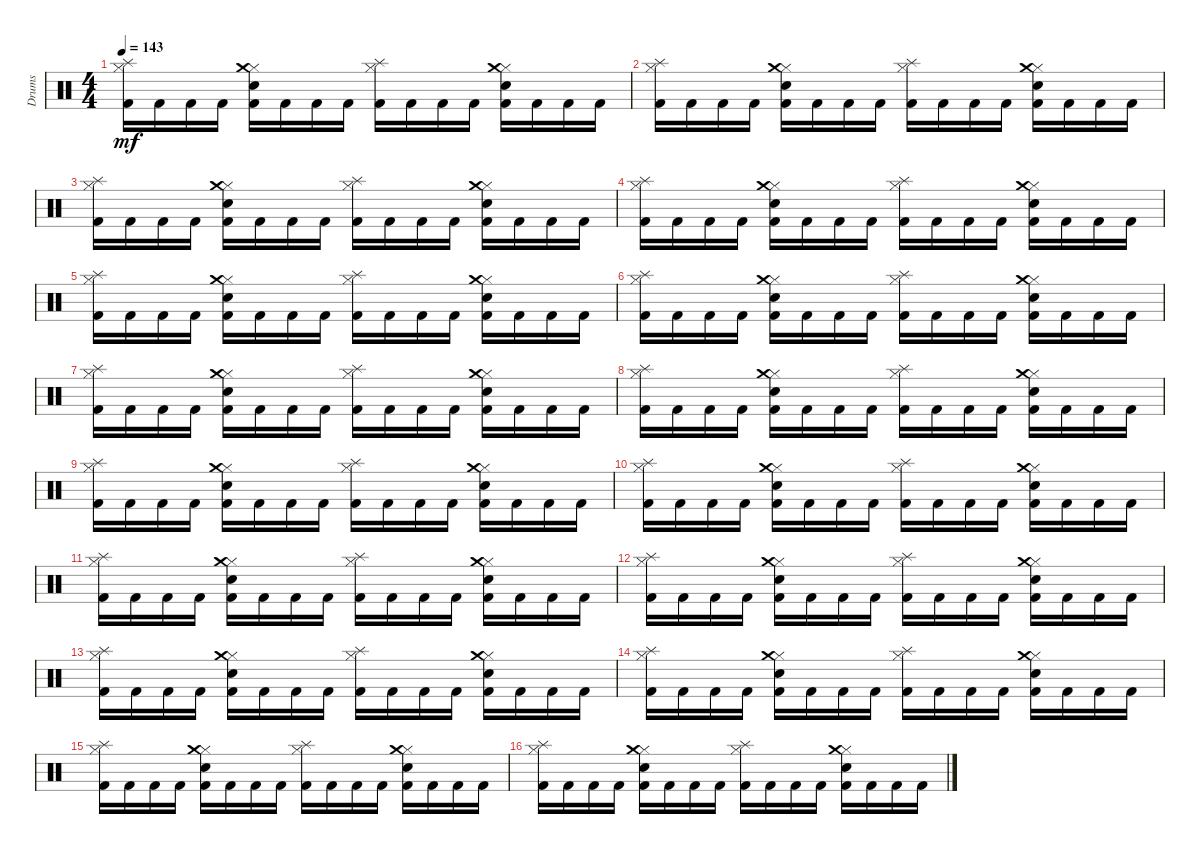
\track ("Drums" "Drums") {instrument percussion}
\staff {score}
\articulation defaults
\ts (4 4)
\tempo 143
\clef neutral
\ks c
("Kick (hit) 2" "Hi-Hat (closed)" "Splash (hit)").16{dy mf} "Kick (hit) 2".16 "Kick (hit) 2".16 "Kick (hit) 2".16 ("Kick (hit) 2" "Snare (hit) 2" "Hi-Hat (closed)" "Crash medium (hit)").16 "Kick (hit) 2".16 "Kick (hit) 2".16 "Kick (hit) 2".16 ("Kick (hit) 2" "Hi-Hat (closed)" "Splash (hit)").16 "Kick (hit) 2".16 "Kick (hit) 2".16 "Kick (hit) 2".16 ("Kick (hit) 2" "Snare (hit) 2" "Hi-Hat (closed)" "Crash medium (hit)").16 "Kick (hit) 2".16 "Kick (hit) 2".16 "Kick (hit) 2".16 |
("Kick (hit) 2" "Hi-Hat (closed)" "Splash (hit)").16 "Kick (hit) 2".16 "Kick (hit) 2".16 "Kick (hit) 2".16 ("Kick (hit) 2" "Snare (hit) 2" "Hi-Hat (closed)" "Crash medium (hit)").16 "Kick (hit) 2".16 "Kick (hit) 2".16 "Kick (hit) 2".16 ("Kick (hit) 2" "Hi-Hat (closed)" "Splash (hit)").16 "Kick (hit) 2".16 "Kick (hit) 2".16 "Kick (hit) 2".16 ("Kick (hit) 2" "Snare (hit) 2" "Hi-Hat (closed)" "Crash medium (hit)").16 "Kick (hit) 2".16 "Kick (hit) 2".16 "Kick (hit) 2".16 |
("Kick (hit) 2" "Hi-Hat (closed)" "Splash (hit)").16 "Kick (hit) 2".16 "Kick (hit) 2".16 "Kick (hit) 2".16 ("Kick (hit) 2" "Snare (hit) 2" "Hi-Hat (closed)" "Crash medium (hit)").16 "Kick (hit) 2".16 "Kick (hit) 2".16 "Kick (hit) 2".16 ("Kick (hit) 2" "Hi-Hat (closed)" "Splash (hit)").16 "Kick (hit) 2".16 "Kick (hit) 2".16 "Kick (hit) 2".16 ("Kick (hit) 2" "Snare (hit) 2" "Hi-Hat (closed)" "Crash medium (hit)").16 "Kick (hit) 2".16 "Kick (hit) 2".16 "Kick (hit) 2".16 |
("Kick (hit) 2" "Hi-Hat (closed)" "Splash (hit)").16 "Kick (hit) 2".16 "Kick (hit) 2".16 "Kick (hit) 2".16 ("Kick (hit) 2" "Snare (hit) 2" "Hi-Hat (closed)" "Crash medium (hit)").16 "Kick (hit) 2".16 "Kick (hit) 2".16 "Kick (hit) 2".16 ("Kick (hit) 2" "Hi-Hat (closed)" "Splash (hit)").16 "Kick (hit) 2".16 "Kick (hit) 2".16 "Kick (hit) 2".16 ("Kick (hit) 2" "Snare (hit) 2" "Hi-Hat (closed)" "Crash medium (hit)").16 "Kick (hit) 2".16 "Kick (hit) 2".16 "Kick (hit) 2".16 |
("Kick (hit) 2" "Hi-Hat (closed)" "Splash (hit)").16 "Kick (hit) 2".16 "Kick (hit) 2".16 "Kick (hit) 2".16 ("Kick (hit) 2" "Snare (hit) 2" "Hi-Hat (closed)" "Crash medium (hit)").16 "Kick (hit) 2".16 "Kick (hit) 2".16 "Kick (hit) 2".16 ("Kick (hit) 2" "Hi-Hat (closed)" "Splash (hit)").16 "Kick (hit) 2".16 "Kick (hit) 2".16 "Kick (hit) 2".16 ("Kick (hit) 2" "Snare (hit) 2" "Hi-Hat (closed)" "Crash medium (hit)").16 "Kick (hit) 2".16 "Kick (hit) 2".16 "Kick (hit) 2".16 |
("Kick (hit) 2" "Hi-Hat (closed)" "Splash (hit)").16 "Kick (hit) 2".16 "Kick (hit) 2".16 "Kick (hit) 2".16 ("Kick (hit) 2" "Snare (hit) 2" "Hi-Hat (closed)" "Crash medium (hit)").16 "Kick (hit) 2".16 "Kick (hit) 2".16 "Kick (hit) 2".16 ("Kick (hit) 2" "Hi-Hat (closed)" "Splash (hit)").16 "Kick (hit) 2".16 "Kick (hit) 2".16 "Kick (hit) 2".16 ("Kick (hit) 2" "Snare (hit) 2" "Hi-Hat (closed)" "Crash medium (hit)").16 "Kick (hit) 2".16 "Kick (hit) 2".16 "Kick (hit) 2".16 |
("Kick (hit) 2" "Hi-Hat (closed)" "Splash (hit)").16 "Kick (hit) 2".16 "Kick (hit) 2".16 "Kick (hit) 2".16 ("Kick (hit) 2" "Snare (hit) 2" "Hi-Hat (closed)" "Crash medium (hit)").16 "Kick (hit) 2".16 "Kick (hit) 2".16 "Kick (hit) 2".16 ("Kick (hit) 2" "Hi-Hat (closed)" "Splash (hit)").16 "Kick (hit) 2".16 "Kick (hit) 2".16 "Kick (hit) 2".16 ("Kick (hit) 2" "Snare (hit) 2" "Hi-Hat (closed)" "Crash medium (hit)").16 "Kick (hit) 2".16 "Kick (hit) 2".16 "Kick (hit) 2".16 |
("Kick (hit) 2" "Hi-Hat (closed)" "Splash (hit)").16 "Kick (hit) 2".16 "Kick (hit) 2".16 "Kick (hit) 2".16 ("Kick (hit) 2" "Snare (hit) 2" "Hi-Hat (closed)" "Crash medium (hit)").16 "Kick (hit) 2".16 "Kick (hit) 2".16 "Kick (hit) 2".16 ("Kick (hit) 2" "Hi-Hat (closed)" "Splash (hit)").16 "Kick (hit) 2".16 "Kick (hit) 2".16 "Kick (hit) 2".16 ("Kick (hit) 2" "Snare (hit) 2" "Hi-Hat (closed)" "Crash medium (hit)").16 "Kick (hit) 2".16 "Kick (hit) 2".16 "Kick (hit) 2".16 |
("Kick (hit) 2" "Hi-Hat (closed)" "Splash (hit)").16 "Kick (hit) 2".16 "Kick (hit) 2".16 "Kick (hit) 2".16 ("Kick (hit) 2" "Snare (hit) 2" "Hi-Hat (closed)" "Crash medium (hit)").16 "Kick (hit) 2".16 "Kick (hit) 2".16 "Kick (hit) 2".16 ("Kick (hit) 2" "Hi-Hat (closed)" "Splash (hit)").16 "Kick (hit) 2".16 "Kick (hit) 2".16 "Kick (hit) 2".16 ("Kick (hit) 2" "Snare (hit) 2" "Hi-Hat (closed)" "Crash medium (hit)").16 "Kick (hit) 2".16 "Kick (hit) 2".16 "Kick (hit) 2".16 |
("Kick (hit) 2" "Hi-Hat (closed)" "Splash (hit)").16 "Kick (hit) 2".16 "Kick (hit) 2".16 "Kick (hit) 2".16 ("Kick (hit) 2" "Snare (hit) 2" "Hi-Hat (closed)" "Crash medium (hit)").16 "Kick (hit) 2".16 "Kick (hit) 2".16 "Kick (hit) 2".16 ("Kick (hit) 2" "Hi-Hat (closed)" "Splash (hit)").16 "Kick (hit) 2".16 "Kick (hit) 2".16 "Kick (hit) 2".16 ("Kick (hit) 2" "Snare (hit) 2" "Hi-Hat (closed)" "Crash medium (hit)").16 "Kick (hit) 2".16 "Kick (hit) 2".16 "Kick (hit) 2".16 |
("Kick (hit) 2" "Hi-Hat (closed)" "Splash (hit)").16 "Kick (hit) 2".16 "Kick (hit) 2".16 "Kick (hit) 2".16 ("Kick (hit) 2" "Snare (hit) 2" "Hi-Hat (closed)" "Crash medium (hit)").16 "Kick (hit) 2".16 "Kick (hit) 2".16 "Kick (hit) 2".16 ("Kick (hit) 2" "Hi-Hat (closed)" "Splash (hit)").16 "Kick (hit) 2".16 "Kick (hit) 2".16 "Kick (hit) 2".16 ("Kick (hit) 2" "Snare (hit) 2" "Hi-Hat (closed)" "Crash medium (hit)").16 "Kick (hit) 2".16 "Kick (hit) 2".16 "Kick (hit) 2".16 |
("Kick (hit) 2" "Hi-Hat (closed)" "Splash (hit)").16 "Kick (hit) 2".16 "Kick (hit) 2".16 "Kick (hit) 2".16 ("Kick (hit) 2" "Snare (hit) 2" "Hi-Hat (closed)" "Crash medium (hit)").16 "Kick (hit) 2".16 "Kick (hit) 2".16 "Kick (hit) 2".16 ("Kick (hit) 2" "Hi-Hat (closed)" "Splash (hit)").16 "Kick (hit) 2".16 "Kick (hit) 2".16 "Kick (hit) 2".16 ("Kick (hit) 2" "Snare (hit) 2" "Hi-Hat (closed)" "Crash medium (hit)").16 "Kick (hit) 2".16 "Kick (hit) 2".16 "Kick (hit) 2".16 |
("Kick (hit) 2" "Hi-Hat (closed)" "Splash (hit)").16 "Kick (hit) 2".16 "Kick (hit) 2".16 "Kick (hit) 2".16 ("Kick (hit) 2" "Snare (hit) 2" "Hi-Hat (closed)" "Crash medium (hit)").16 "Kick (hit) 2".16 "Kick (hit) 2".16 "Kick (hit) 2".16 ("Kick (hit) 2" "Hi-Hat (closed)" "Splash (hit)").16 "Kick (hit) 2".16 "Kick (hit) 2".16 "Kick (hit) 2".16 ("Kick (hit) 2" "Snare (hit) 2" "Hi-Hat (closed)" "Crash medium (hit)").16 "Kick (hit) 2".16 "Kick (hit) 2".16 "Kick (hit) 2".16 |
("Kick (hit) 2" "Hi-Hat (closed)" "Splash (hit)").16 "Kick (hit) 2".16 "Kick (hit) 2".16 "Kick (hit) 2".16 ("Kick (hit) 2" "Snare (hit) 2" "Hi-Hat (closed)" "Crash medium (hit)").16 "Kick (hit) 2".16 "Kick (hit) 2".16 "Kick (hit) 2".16 ("Kick (hit) 2" "Hi-Hat (closed)" "Splash (hit)").16 "Kick (hit) 2".16 "Kick (hit) 2".16 "Kick (hit) 2".16 ("Kick (hit) 2" "Snare (hit) 2" "Hi-Hat (closed)" "Crash medium (hit)").16 "Kick (hit) 2".16 "Kick (hit) 2".16 "Kick (hit) 2".16 |
("Kick (hit) 2" "Hi-Hat (closed)" "Splash (hit)").16 "Kick (hit) 2".16 "Kick (hit) 2".16 "Kick (hit) 2".16 ("Kick (hit) 2" "Snare (hit) 2" "Hi-Hat (closed)" "Crash medium (hit)").16 "Kick (hit) 2".16 "Kick (hit) 2".16 "Kick (hit) 2".16 ("Kick (hit) 2" "Hi-Hat (closed)" "Splash (hit)").16 "Kick (hit) 2".16 "Kick (hit) 2".16 "Kick (hit) 2".16 ("Kick (hit) 2" "Snare (hit) 2" "Hi-Hat (closed)" "Crash medium (hit)").16 "Kick (hit) 2".16 "Kick (hit) 2".16 "Kick (hit) 2".16 |
("Kick (hit) 2" "Hi-Hat (closed)" "Splash (hit)").16 "Kick (hit) 2".16 "Kick (hit) 2".16 "Kick (hit) 2".16 ("Kick (hit) 2" "Snare (hit) 2" "Hi-Hat (closed)" "Crash medium (hit)").16 "Kick (hit) 2".16 "Kick (hit) 2".16 "Kick (hit) 2".16 ("Kick (hit) 2" "Hi-Hat (closed)" "Splash (hit)").16 "Kick (hit) 2".16 "Kick (hit) 2".16 "Kick (hit) 2".16 ("Kick (hit) 2" "Snare (hit) 2" "Hi-Hat (closed)" "Crash medium (hit)").16 "Kick (hit) 2".16 "Kick (hit) 2".16 "Kick (hit) 2".16
